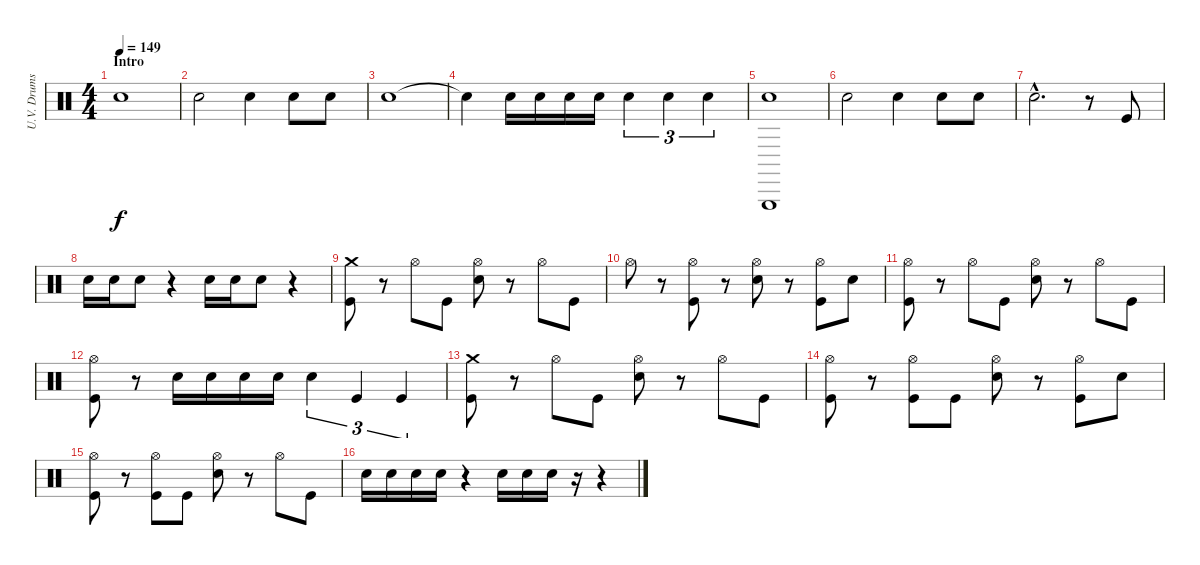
\track ("U.V. Drums" "U.V. Drums") {instrument percussion}
\staff {score}
\articulation defaults
\ts (4 4)
\section ("" "Intro")
\tempo 149
\clef neutral
\ks c "Electric Snare (hit)".1{dy f}
|
"Electric Snare (hit)".2 "Electric Snare (hit)".4 "Electric Snare (hit)".8 "Electric Snare (hit)".8 |
"Electric Snare (hit)".1 |
"Snare (hit)"{t}.4 "Electric Snare (hit)".16 "Electric Snare (hit)".16 "Electric Snare (hit)".16 "Electric Snare (hit)".16 "Electric Snare (hit)".4{tu (3 2)} "Electric Snare (hit)".4{tu (3 2)} "Electric Snare (hit)".4{tu (3 2)} |
("Triangle (hit)" "Electric Snare (hit)").1 |
"Electric Snare (hit)".2 "Electric Snare (hit)".4 "Electric Snare (hit)".8 "Electric Snare (hit)".8 |
"Electric Snare (hit)"{hac}.2{d} r.8 "Kick (hit)".8 |
"Electric Snare (hit)".16 "Electric Snare (hit)".16 "Electric Snare (hit)".8 r.4 "Electric Snare (hit)".16 "Electric Snare (hit)".16 "Electric Snare (hit)".8 r.4 |
("Crash medium (hit)" "Kick (hit)").8 r.8 "Hi-Hat (open)".8 "Kick (hit)".8 ("Hi-Hat (open)" "Electric Snare (hit)").8 r.8 "Hi-Hat (open)".8 "Kick (hit)".8 |
"Hi-Hat (open)".8 r.8 ("Hi-Hat (open)" "Kick (hit)").8 r.8 ("Hi-Hat (open)" "Electric Snare (hit)").8 r.8 ("Hi-Hat (open)" "Kick (hit)").8 "Electric Snare (hit)".8 |
("Hi-Hat (open)" "Kick (hit)").8 r.8 "Hi-Hat (open)".8 "Kick (hit)".8 ("Hi-Hat (open)" "Electric Snare (hit)").8 r.8 "Hi-Hat (open)".8 "Kick (hit)".8 |
("Hi-Hat (open)" "Kick (hit)").8 r.8 "Electric Snare (hit)".16 "Electric Snare (hit)".16 "Electric Snare (hit)".16 "Electric Snare (hit)".16 "Electric Snare (hit)".4{tu (3 2)} "Kick (hit)".4{tu (3 2)} "Kick (hit)".4{tu (3 2)} |
("Crash medium (hit)" "Kick (hit)").8 r.8 "Hi-Hat (open)".8 "Kick (hit)".8 ("Hi-Hat (open)" "Electric Snare (hit)").8 r.8 "Hi-Hat (open)".8 "Kick (hit)".8 |
("Hi-Hat (open)" "Kick (hit)").8 r.8 ("Hi-Hat (open)" "Kick (hit)").8 "Kick (hit)".8 ("Hi-Hat (open)" "Electric Snare (hit)").8 r.8 ("Hi-Hat (open)" "Kick (hit)").8 "Electric Snare (hit)".8 |
("Hi-Hat (open)" "Kick (hit)").8 r.8 ("Hi-Hat (open)" "Kick (hit)").8 "Kick (hit)".8 ("Hi-Hat (open)" "Electric Snare (hit)").8 r.8 "Hi-Hat (open)".8 "Kick (hit)".8 |
"Electric Snare (hit)".16 "Electric Snare (hit)".16 "Electric Snare (hit)".16 "Electric Snare (hit)".16 r.4 "Electric Snare (hit)".16 "Electric Snare (hit)".16 "Electric Snare (hit)".16 r.16 r.4
